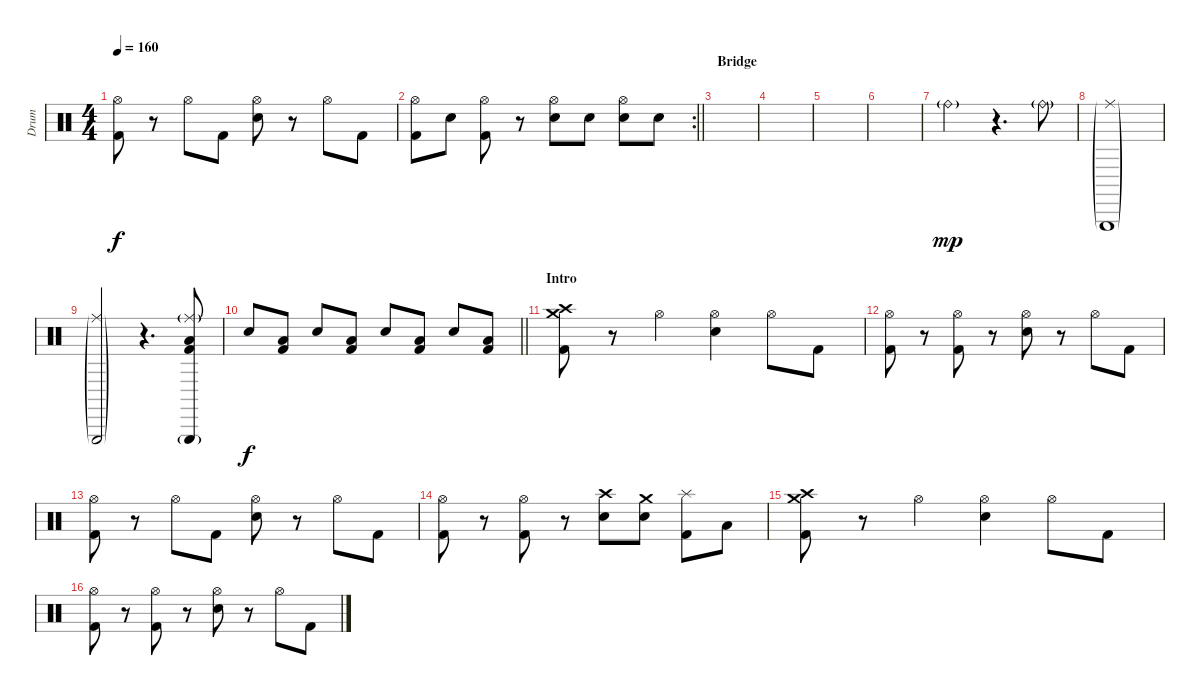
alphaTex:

\track ("Drum" "Drum") {instrument percussion}
\staff {score}
\articulation defaults
\ts (4 4)
\tempo 160
\clef neutral
\ks c
("Hi-Hat (open)" "Kick (hit) 2").8{dy f} r.8 "Hi-Hat (open)".8 "Kick (hit) 2".8 ("Hi-Hat (open)" "Electric Snare (hit)").8 r.8 "Hi-Hat (open)".8 "Kick (hit) 2".8 |
\rc 2
\barLineRight lightlight
("Hi-Hat (open)" "Kick (hit) 2").8 "Electric Snare (hit)".8 ("Hi-Hat (open)" "Kick (hit) 2").8 r.8 ("Hi-Hat (open)" "Electric Snare (hit)").8 "Electric Snare (hit)".8 ("Hi-Hat (open)" "Electric Snare (hit)").8 "Electric Snare (hit)".8 |
\section ("" "Bridge")
|
|
|
|
"Ride (bell)"{g}.2{dy mp} r.4{d} "Ride (bell)"{g}.8 |
("Triangle (hit)"{g} "Ride (middle)"{g}).1 |
("Triangle (hit)"{g} "Ride (middle)"{g}).2 r.4{d} ("Kick (hit) 2" "Low Floor Tom (hit)" "Triangle (hit)"{g} "Ride (middle)"{g}).8 |
\barLineRight lightlight "Electric Snare (hit)".8{dy f}
("Kick (hit) 2" "Low Floor Tom (hit)").8 "Electric Snare (hit)".8 ("Kick (hit) 2" "Low Floor Tom (hit)").8 "Electric Snare (hit)".8 ("Kick (hit) 2" "Low Floor Tom (hit)").8 "Electric Snare (hit)".8 ("Kick (hit) 2" "Low Floor Tom (hit)").8 |
\section ("" "Intro")
("Kick (hit) 2" "Crash high (hit)" "Crash medium (hit)").8 r.8 "Hi-Hat (open)".4 ("Hi-Hat (open)" "Electric Snare (hit)").4 "Hi-Hat (open)".8 "Kick (hit) 2".8 |
("Hi-Hat (open)" "Kick (hit) 2").8 r.8 ("Hi-Hat (open)" "Kick (hit) 2").8 r.8 ("Hi-Hat (open)" "Electric Snare (hit)").8 r.8 "Hi-Hat (open)".8 "Kick (hit) 2".8 |
("Hi-Hat (open)" "Kick (hit) 2").8 r.8 "Hi-Hat (open)".8 "Kick (hit) 2".8 ("Hi-Hat (open)" "Electric Snare (hit)").8 r.8 "Hi-Hat (open)".8 "Kick (hit) 2".8 |
("Hi-Hat (open)" "Kick (hit) 2").8 r.8 ("Hi-Hat (open)" "Kick (hit) 2").8 r.8 ("Crash high (hit)" "Electric Snare (hit)").8 ("Crash medium (hit)" "Electric Snare (hit)").8 ("Splash (hit)" "Kick (hit) 2").8 "Low Floor Tom (hit)".8 |
("Kick (hit) 2" "Crash high (hit)" "Crash medium (hit)").8 r.8 "Hi-Hat (open)".4 ("Hi-Hat (open)" "Electric Snare (hit)").4 "Hi-Hat (open)".8 "Kick (hit) 2".8 |
("Hi-Hat (open)" "Kick (hit) 2").8 r.8 ("Hi-Hat (open)" "Kick (hit) 2").8 r.8 ("Hi-Hat (open)" "Electric Snare (hit)").8 r.8 "Hi-Hat (open)".8 "Kick (hit) 2".8
